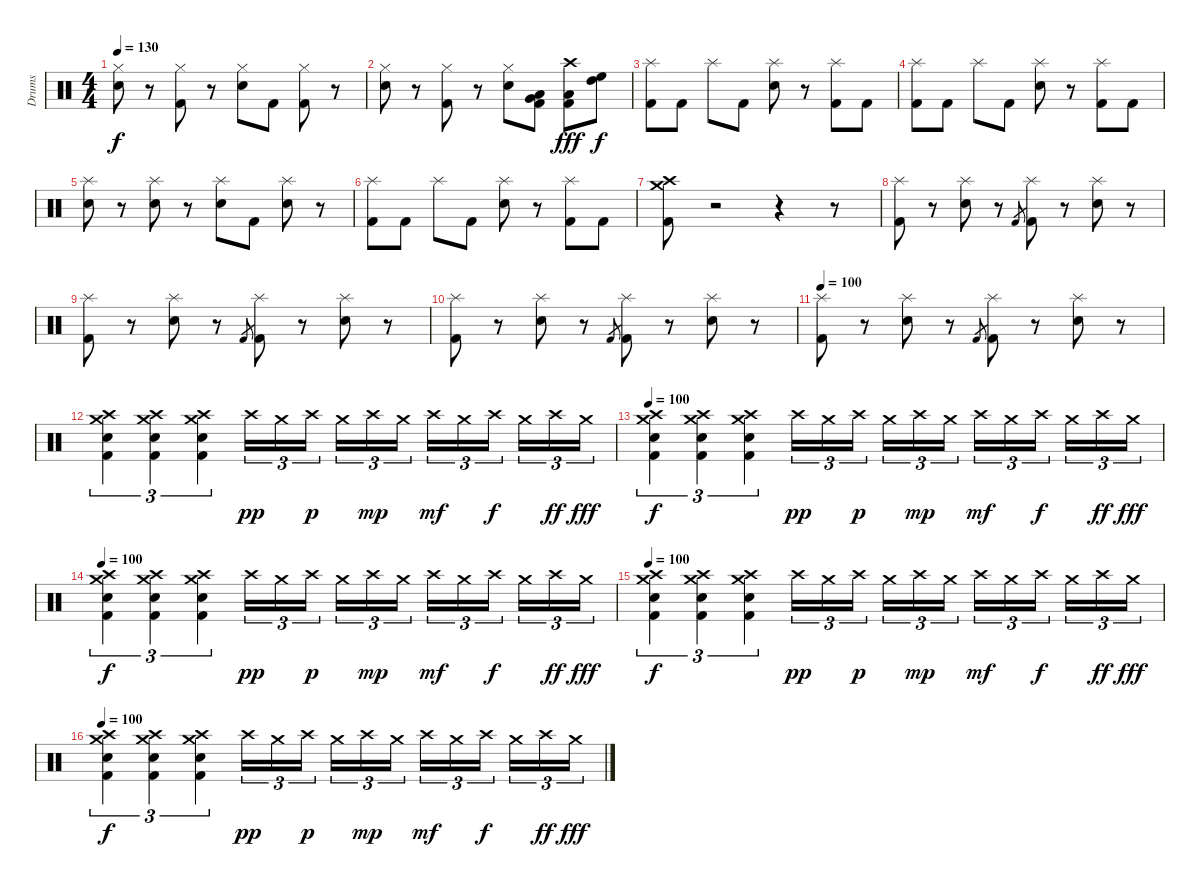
\track ("Drums" "Drums") {instrument percussion}
\staff {score}
\articulation defaults
\ts (4 4)
\tempo 130
\clef neutral
\ks c
("Hi-Hat (closed)" "Snare (hit) 2").8{dy f} r.8 ("Hi-Hat (closed)" "Kick (hit) 2").8 r.8 ("Hi-Hat (closed)" "Snare (hit) 2").8 "Kick (hit) 2".8 ("Hi-Hat (closed)" "Kick (hit) 2").8 r.8 |
("Hi-Hat (closed)" "Snare (hit) 2").8 r.8 ("Hi-Hat (closed)" "Kick (hit) 2").8 r.8 ("Hi-Hat (closed)" "Snare (hit) 2").8 ("Very Low Tom (hit)" "Low Floor Tom (hit)" "Kick (hit) 2").8 ("Crash high (hit)" "Low Tom (hit)" "Kick (hit) 2").8{dy fff} ("High Floor Tom (hit)" "High Tom (hit)").8{dy f} |
("Splash (hit)" "Kick (hit) 2").8 "Kick (hit) 2".8 "Splash (hit)".8 "Kick (hit) 2".8 ("Splash (hit)" "Snare (hit) 2").8 r.8 ("Splash (hit)" "Kick (hit) 2").8 "Kick (hit) 2".8 |
("Splash (hit)" "Kick (hit) 2").8 "Kick (hit) 2".8 "Splash (hit)".8 "Kick (hit) 2".8 ("Splash (hit)" "Snare (hit) 2").8 r.8 ("Splash (hit)" "Kick (hit) 2").8 "Kick (hit) 2".8 |
("Splash (hit)" "Snare (hit) 2").8 r.8 ("Splash (hit)" "Snare (hit) 2").8 r.8 ("Splash (hit)" "Snare (hit) 2").8 "Kick (hit) 2".8 ("Splash (hit)" "Snare (hit) 2").8 r.8 |
("Splash (hit)" "Kick (hit) 2").8 "Kick (hit) 2".8 "Splash (hit)".8 "Kick (hit) 2".8 ("Splash (hit)" "Snare (hit) 2").8 r.8 ("Splash (hit)" "Kick (hit) 2").8 "Kick (hit) 2".8 |
("Crash high (hit)" "Crash medium (hit)" "Kick (hit) 2").8 r.2 r.4 r.8 |
("Splash (hit)" "Kick (hit) 2").8 r.8 ("Splash (hit)" "Snare (hit) 2").8 r.8 "Kick (hit) 2".8{gr} ("Splash (hit)" "Kick (hit) 2").8 r.8 ("Splash (hit)" "Snare (hit) 2").8 r.8 |
("Splash (hit)" "Kick (hit) 2").8 r.8 ("Splash (hit)" "Snare (hit) 2").8 r.8 "Kick (hit) 2".8{gr} ("Splash (hit)" "Kick (hit) 2").8 r.8 ("Splash (hit)" "Snare (hit) 2").8 r.8 |
("Splash (hit)" "Kick (hit) 2").8 r.8 ("Splash (hit)" "Snare (hit) 2").8 r.8 "Kick (hit) 2".8{gr} ("Splash (hit)" "Kick (hit) 2").8 r.8 ("Splash (hit)" "Snare (hit) 2").8 r.8 |
\tempo 100
("Splash (hit)" "Kick (hit) 2").8 r.8 ("Splash (hit)" "Snare (hit) 2").8 r.8 "Kick (hit) 2".8{gr} ("Splash (hit)" "Kick (hit) 2").8 r.8 ("Splash (hit)" "Snare (hit) 2").8 r.8 |
("Crash high (hit)" "Crash medium (hit)" "Snare (hit) 2" "Kick (hit) 2").4{tu (3 2)} ("Crash high (hit)" "Crash medium (hit)" "Snare (hit) 2" "Kick (hit) 2").4{tu (3 2)} ("Crash high (hit)" "Crash medium (hit)" "Snare (hit) 2" "Kick (hit) 2").4{tu (3 2)} "Crash high (hit)".16{tu (3 2) dy pp} "Crash medium (hit)".16{tu (3 2)} "Crash high (hit)".16{tu (3 2) dy p} "Crash medium (hit)".16{tu (3 2)} "Crash high (hit)".16{tu (3 2) dy mp} "Crash medium (hit)".16{tu (3 2)} "Crash high (hit)".16{tu (3 2) dy mf} "Crash medium (hit)".16{tu (3 2)} "Crash high (hit)".16{tu (3 2) dy f} "Crash medium (hit)".16{tu (3 2)} "Crash high (hit)".16{tu (3 2) dy ff} "Crash medium (hit)".16{tu (3 2) dy fff} |
\tempo 100
("Crash high (hit)" "Crash medium (hit)" "Snare (hit) 2" "Kick (hit) 2").4{tu (3 2) dy f} ("Crash high (hit)" "Crash medium (hit)" "Snare (hit) 2" "Kick (hit) 2").4{tu (3 2)} ("Crash high (hit)" "Crash medium (hit)" "Snare (hit) 2" "Kick (hit) 2").4{tu (3 2)} "Crash high (hit)".16{tu (3 2) dy pp} "Crash medium (hit)".16{tu (3 2)} "Crash high (hit)".16{tu (3 2) dy p} "Crash medium (hit)".16{tu (3 2)} "Crash high (hit)".16{tu (3 2) dy mp} "Crash medium (hit)".16{tu (3 2)} "Crash high (hit)".16{tu (3 2) dy mf} "Crash medium (hit)".16{tu (3 2)} "Crash high (hit)".16{tu (3 2) dy f} "Crash medium (hit)".16{tu (3 2)} "Crash high (hit)".16{tu (3 2) dy ff} "Crash medium (hit)".16{tu (3 2) dy fff} |
\tempo 100
("Crash high (hit)" "Crash medium (hit)" "Snare (hit) 2" "Kick (hit) 2").4{tu (3 2) dy f} ("Crash high (hit)" "Crash medium (hit)" "Snare (hit) 2" "Kick (hit) 2").4{tu (3 2)} ("Crash high (hit)" "Crash medium (hit)" "Snare (hit) 2" "Kick (hit) 2").4{tu (3 2)} "Crash high (hit)".16{tu (3 2) dy pp} "Crash medium (hit)".16{tu (3 2)} "Crash high (hit)".16{tu (3 2) dy p} "Crash medium (hit)".16{tu (3 2)} "Crash high (hit)".16{tu (3 2) dy mp} "Crash medium (hit)".16{tu (3 2)} "Crash high (hit)".16{tu (3 2) dy mf} "Crash medium (hit)".16{tu (3 2)} "Crash high (hit)".16{tu (3 2) dy f} "Crash medium (hit)".16{tu (3 2)} "Crash high (hit)".16{tu (3 2) dy ff} "Crash medium (hit)".16{tu (3 2) dy fff} |
\tempo 100
("Crash high (hit)" "Crash medium (hit)" "Snare (hit) 2" "Kick (hit) 2").4{tu (3 2) dy f} ("Crash high (hit)" "Crash medium (hit)" "Snare (hit) 2" "Kick (hit) 2").4{tu (3 2)} ("Crash high (hit)" "Crash medium (hit)" "Snare (hit) 2" "Kick (hit) 2").4{tu (3 2)} "Crash high (hit)".16{tu (3 2) dy pp} "Crash medium (hit)".16{tu (3 2)} "Crash high (hit)".16{tu (3 2) dy p} "Crash medium (hit)".16{tu (3 2)} "Crash high (hit)".16{tu (3 2) dy mp} "Crash medium (hit)".16{tu (3 2)} "Crash high (hit)".16{tu (3 2) dy mf} "Crash medium (hit)".16{tu (3 2)} "Crash high (hit)".16{tu (3 2) dy f} "Crash medium (hit)".16{tu (3 2)} "Crash high (hit)".16{tu (3 2) dy ff} "Crash medium (hit)".16{tu (3 2) dy fff} |
\tempo 100
("Crash high (hit)" "Crash medium (hit)" "Snare (hit) 2" "Kick (hit) 2").4{tu (3 2) dy f} ("Crash high (hit)" "Crash medium (hit)" "Snare (hit) 2" "Kick (hit) 2").4{tu (3 2)} ("Crash high (hit)" "Crash medium (hit)" "Snare (hit) 2" "Kick (hit) 2").4{tu (3 2)} "Crash high (hit)".16{tu (3 2) dy pp} "Crash medium (hit)".16{tu (3 2)} "Crash high (hit)".16{tu (3 2) dy p} "Crash medium (hit)".16{tu (3 2)} "Crash high (hit)".16{tu (3 2) dy mp} "Crash medium (hit)".16{tu (3 2)} "Crash high (hit)".16{tu (3 2) dy mf} "Crash medium (hit)".16{tu (3 2)} "Crash high (hit)".16{tu (3 2) dy f} "Crash medium (hit)".16{tu (3 2)} "Crash high (hit)".16{tu (3 2) dy ff} "Crash medium (hit)".16{tu (3 2) dy fff}
